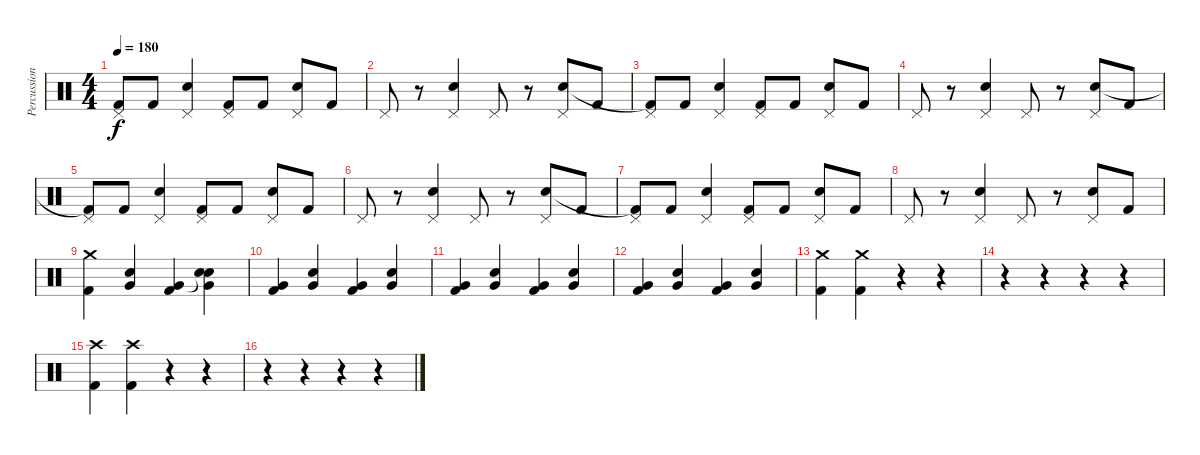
\track ("Percussion" "Percussion") {instrument percussion}
\staff {score}
\articulation defaults
\ts (4 4)
\tempo 180
\clef neutral
\ks c
("Pedal Hi-Hat (hit)" "Kick (hit) 2").8{dy f} "Kick (hit) 2".8 ("Pedal Hi-Hat (hit)" "Electric Snare (hit)").4 ("Pedal Hi-Hat (hit)" "Kick (hit) 2").8 "Kick (hit) 2".8 ("Pedal Hi-Hat (hit)" "Electric Snare (hit)").8 "Kick (hit) 2".8 |
"Pedal Hi-Hat (hit)".8 r.8 ("Pedal Hi-Hat (hit)" "Electric Snare (hit)").4 "Pedal Hi-Hat (hit)".8 r.8 ("Pedal Hi-Hat (hit)" "Electric Snare (hit)").8 "Kick (hit) 2".8 |
("Pedal Hi-Hat (hit)" "Kick (hit) 2"{t}).8 "Kick (hit) 2".8 ("Pedal Hi-Hat (hit)" "Electric Snare (hit)").4 ("Pedal Hi-Hat (hit)" "Kick (hit) 2").8 "Kick (hit) 2".8 ("Pedal Hi-Hat (hit)" "Electric Snare (hit)").8 "Kick (hit) 2".8 |
"Pedal Hi-Hat (hit)".8 r.8 ("Pedal Hi-Hat (hit)" "Electric Snare (hit)").4 "Pedal Hi-Hat (hit)".8 r.8 ("Pedal Hi-Hat (hit)" "Electric Snare (hit)").8 "Kick (hit) 2".8 |
("Pedal Hi-Hat (hit)" "Kick (hit) 2"{t}).8 "Kick (hit) 2".8 ("Pedal Hi-Hat (hit)" "Electric Snare (hit)").4 ("Pedal Hi-Hat (hit)" "Kick (hit) 2").8 "Kick (hit) 2".8 ("Pedal Hi-Hat (hit)" "Electric Snare (hit)").8 "Kick (hit) 2".8 |
"Pedal Hi-Hat (hit)".8 r.8 ("Pedal Hi-Hat (hit)" "Electric Snare (hit)").4 "Pedal Hi-Hat (hit)".8 r.8 ("Pedal Hi-Hat (hit)" "Electric Snare (hit)").8 "Kick (hit) 2".8 |
("Pedal Hi-Hat (hit)" "Kick (hit) 2"{t}).8 "Kick (hit) 2".8 ("Pedal Hi-Hat (hit)" "Electric Snare (hit)").4 ("Pedal Hi-Hat (hit)" "Kick (hit) 2").8 "Kick (hit) 2".8 ("Pedal Hi-Hat (hit)" "Electric Snare (hit)").8 "Kick (hit) 2".8 |
"Pedal Hi-Hat (hit)".8 r.8 ("Pedal Hi-Hat (hit)" "Electric Snare (hit)").4 "Pedal Hi-Hat (hit)".8 r.8 ("Pedal Hi-Hat (hit)" "Electric Snare (hit)").8 "Kick (hit) 2".8 |
("Crash medium (hit)" "Kick (hit) 2").4 ("Very Low Tom (hit)" "Electric Snare (hit)").4 ("Very Low Tom (hit)" "Kick (hit) 2").4 ("Snare (hit)"{t} "Very Low Tom (hit)" "Electric Snare (hit)").4 |
("Very Low Tom (hit)" "Kick (hit) 2").4 ("Very Low Tom (hit)" "Electric Snare (hit)").4 ("Very Low Tom (hit)" "Kick (hit) 2").4 ("Very Low Tom (hit)" "Electric Snare (hit)").4 |
("Very Low Tom (hit)" "Kick (hit) 2").4 ("Very Low Tom (hit)" "Electric Snare (hit)").4 ("Very Low Tom (hit)" "Kick (hit) 2").4 ("Very Low Tom (hit)" "Electric Snare (hit)").4 |
("Very Low Tom (hit)" "Kick (hit) 2").4 ("Very Low Tom (hit)" "Electric Snare (hit)").4 ("Very Low Tom (hit)" "Kick (hit) 2").4 ("Very Low Tom (hit)" "Electric Snare (hit)").4 |
("Crash medium (hit)" "Kick (hit) 2").4 ("Crash medium (hit)" "Kick (hit) 2").4 r.4 r.4 |
r.4 r.4 r.4 r.4 |
("Crash high (hit)" "Kick (hit) 2").4 ("Crash high (hit)" "Kick (hit) 2").4 r.4 r.4 |
r.4 r.4 r.4 r.4
